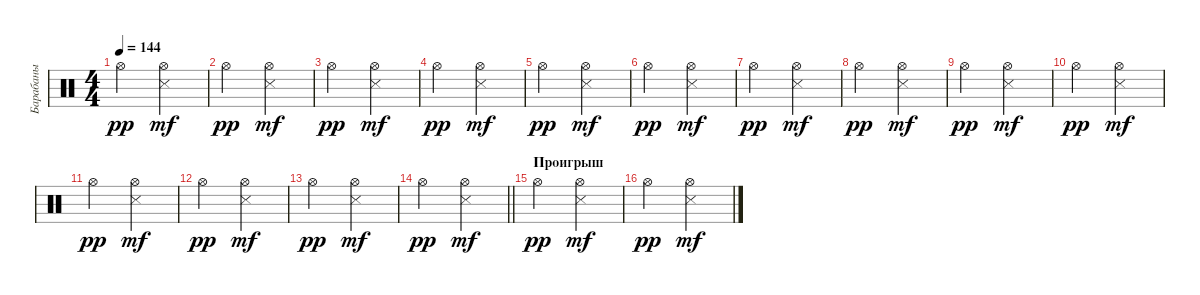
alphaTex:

\track ("Барабаны" "Барабаны") {instrument percussion}
\staff {score}
\articulation defaults
\ts (4 4)
\tempo 144
\clef neutral
\ks c "Hi-Hat (open)".2{dy pp}
("Hi-Hat (open)" "Snare (side stick) 3").2{dy mf} |
"Hi-Hat (open)".2{dy pp} ("Hi-Hat (open)" "Snare (side stick) 3").2{dy mf} |
"Hi-Hat (open)".2{dy pp} ("Hi-Hat (open)" "Snare (side stick) 3").2{dy mf} |
"Hi-Hat (open)".2{dy pp} ("Hi-Hat (open)" "Snare (side stick) 3").2{dy mf} |
"Hi-Hat (open)".2{dy pp} ("Hi-Hat (open)" "Snare (side stick) 3").2{dy mf} |
"Hi-Hat (open)".2{dy pp} ("Hi-Hat (open)" "Snare (side stick) 3").2{dy mf} |
"Hi-Hat (open)".2{dy pp} ("Hi-Hat (open)" "Snare (side stick) 3").2{dy mf} |
"Hi-Hat (open)".2{dy pp} ("Hi-Hat (open)" "Snare (side stick) 3").2{dy mf} |
"Hi-Hat (open)".2{dy pp} ("Hi-Hat (open)" "Snare (side stick) 3").2{dy mf} |
"Hi-Hat (open)".2{dy pp} ("Hi-Hat (open)" "Snare (side stick) 3").2{dy mf} |
"Hi-Hat (open)".2{dy pp} ("Hi-Hat (open)" "Snare (side stick) 3").2{dy mf} |
"Hi-Hat (open)".2{dy pp} ("Hi-Hat (open)" "Snare (side stick) 3").2{dy mf} |
"Hi-Hat (open)".2{dy pp} ("Hi-Hat (open)" "Snare (side stick) 3").2{dy mf} |
\barLineRight lightlight "Hi-Hat (open)".2{dy pp}
("Hi-Hat (open)" "Snare (side stick) 3").2{dy mf} |
\section ("" "Проигрыш")
"Hi-Hat (open)".2{dy pp} ("Hi-Hat (open)" "Snare (side stick) 3").2{dy mf} |
"Hi-Hat (open)".2{dy pp} ("Hi-Hat (open)" "Snare (side stick) 3").2{dy mf}
